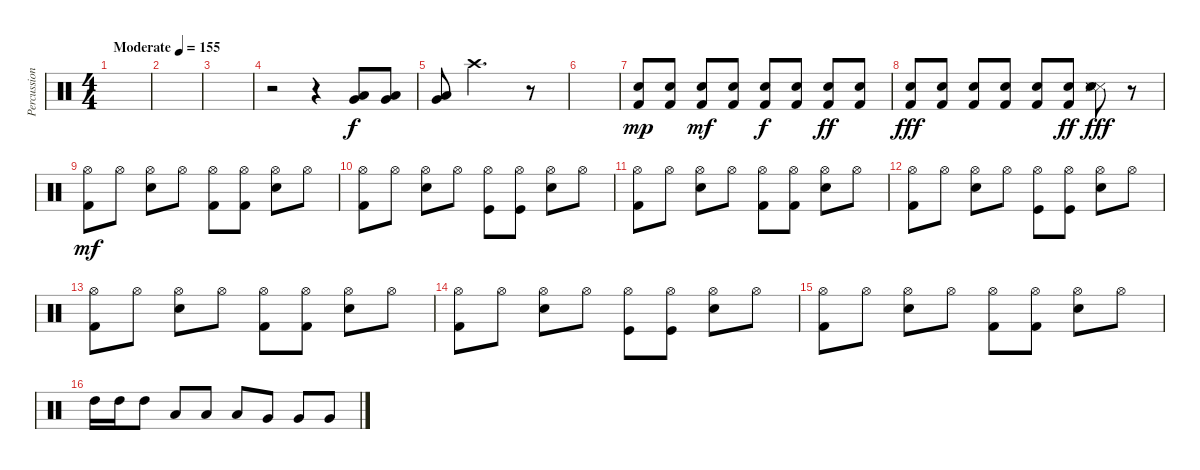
\track ("Percussion" "Percussion") {instrument percussion}
\staff {score}
\articulation defaults
\ts (4 4)
\tempo (155 "Moderate")
\clef neutral
\ks c
|
|
|
r.2 r.4 ("Low Tom (hit)" "Very Low Tom (hit)").8 ("Low Tom (hit)" "Very Low Tom (hit)").8 |
("Low Tom (hit)" "Very Low Tom (hit)").8 "Crash high (hit)".2{d} r.8 |
|
("Kick (hit) 2" "Snare (hit) 2").8{dy mp} ("Kick (hit) 2" "Snare (hit) 2").8 ("Kick (hit) 2" "Snare (hit) 2").8{dy mf} ("Kick (hit) 2" "Snare (hit) 2").8 ("Kick (hit) 2" "Snare (hit) 2").8{dy f} ("Kick (hit) 2" "Snare (hit) 2").8 ("Kick (hit) 2" "Snare (hit) 2").8{dy ff} ("Kick (hit) 2" "Snare (hit) 2").8 |
("Kick (hit) 2" "Snare (hit) 2").8{dy fff} ("Kick (hit) 2" "Snare (hit) 2").8 ("Kick (hit) 2" "Snare (hit) 2").8 ("Kick (hit) 2" "Snare (hit) 2").8 ("Kick (hit) 2" "Snare (hit) 2").8 ("Kick (hit) 2" "Snare (hit) 2").8{dy ff} ("Snare (side stick) 3" "Snare (hit) 2" "Snare (side stick) 3" "Snare (side stick) 3").8{dy fff} r.8 |
("Kick (hit) 2" "Hi-Hat (open)").8{dy mf} "Hi-Hat (open)".8 ("Snare (hit) 2" "Hi-Hat (open)").8 "Hi-Hat (open)".8 ("Kick (hit) 2" "Hi-Hat (open)").8 ("Kick (hit) 2" "Hi-Hat (open)").8 ("Snare (hit) 2" "Hi-Hat (open)").8 "Hi-Hat (open)".8 |
("Kick (hit) 2" "Hi-Hat (open)").8 "Hi-Hat (open)".8 ("Snare (hit) 2" "Hi-Hat (open)").8 "Hi-Hat (open)".8 ("Kick (hit)" "Hi-Hat (open)").8 ("Kick (hit)" "Hi-Hat (open)").8 ("Snare (hit) 2" "Hi-Hat (open)").8 "Hi-Hat (open)".8 |
("Kick (hit) 2" "Hi-Hat (open)").8 "Hi-Hat (open)".8 ("Snare (hit) 2" "Hi-Hat (open)").8 "Hi-Hat (open)".8 ("Kick (hit) 2" "Hi-Hat (open)").8 ("Kick (hit) 2" "Hi-Hat (open)").8 ("Snare (hit) 2" "Hi-Hat (open)").8 "Hi-Hat (open)".8 |
("Kick (hit) 2" "Hi-Hat (open)").8 "Hi-Hat (open)".8 ("Snare (hit) 2" "Hi-Hat (open)").8 "Hi-Hat (open)".8 ("Kick (hit)" "Hi-Hat (open)").8 ("Kick (hit)" "Hi-Hat (open)").8 ("Snare (hit) 2" "Hi-Hat (open)").8 "Hi-Hat (open)".8 |
("Kick (hit) 2" "Hi-Hat (open)").8 "Hi-Hat (open)".8 ("Snare (hit) 2" "Hi-Hat (open)").8 "Hi-Hat (open)".8 ("Kick (hit) 2" "Hi-Hat (open)").8 ("Kick (hit) 2" "Hi-Hat (open)").8 ("Snare (hit) 2" "Hi-Hat (open)").8 "Hi-Hat (open)".8 |
("Kick (hit) 2" "Hi-Hat (open)").8 "Hi-Hat (open)".8 ("Snare (hit) 2" "Hi-Hat (open)").8 "Hi-Hat (open)".8 ("Kick (hit)" "Hi-Hat (open)").8 ("Kick (hit)" "Hi-Hat (open)").8 ("Snare (hit) 2" "Hi-Hat (open)").8 "Hi-Hat (open)".8 |
("Kick (hit) 2" "Hi-Hat (open)").8 "Hi-Hat (open)".8 ("Snare (hit) 2" "Hi-Hat (open)").8 "Hi-Hat (open)".8 ("Kick (hit) 2" "Hi-Hat (open)").8 ("Kick (hit) 2" "Hi-Hat (open)").8 ("Snare (hit) 2" "Hi-Hat (open)").8 "Hi-Hat (open)".8 |
"High Tom (hit)".16 "High Tom (hit)".16 "High Tom (hit)".8 "Low Tom (hit)".8 "Low Tom (hit)".8 "Low Tom (hit)".8 "Very Low Tom (hit)".8 "Very Low Tom (hit)".8 "Very Low Tom (hit)".8
